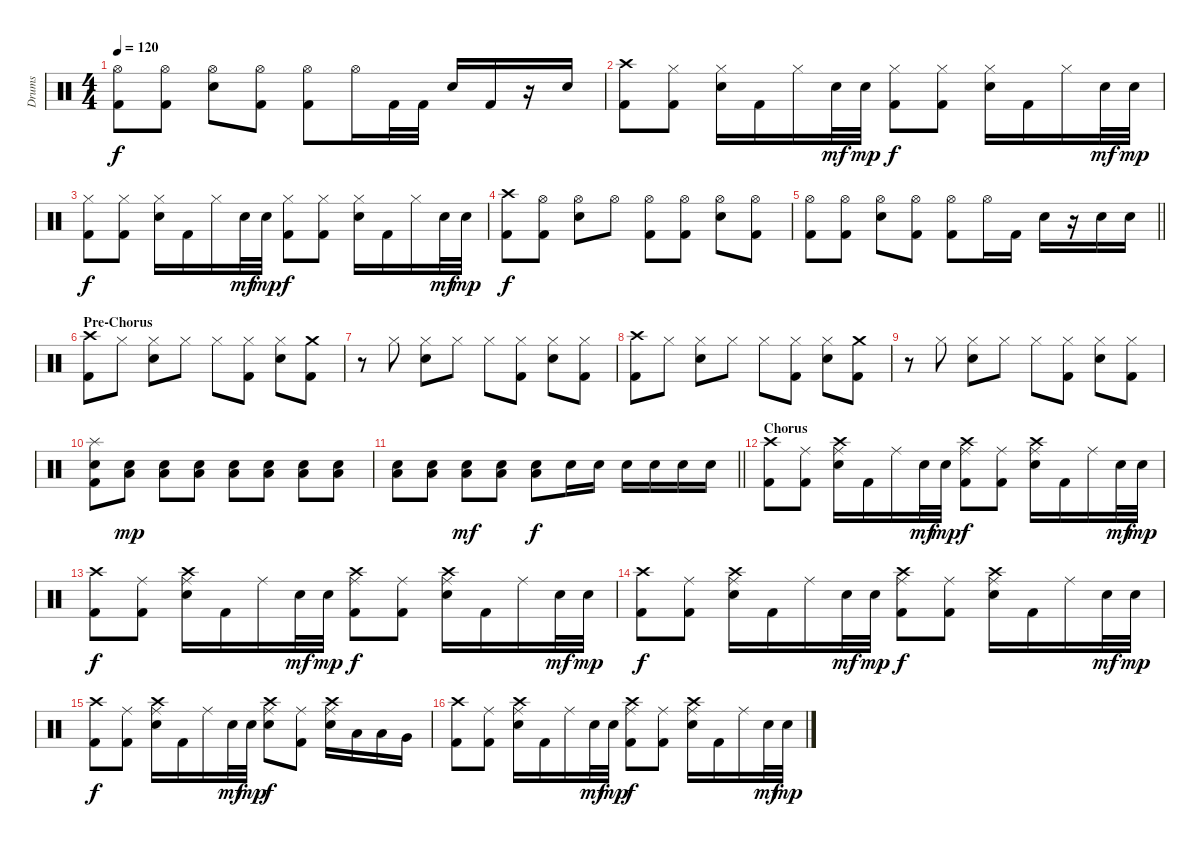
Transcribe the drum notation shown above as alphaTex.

\track ("Drums" "Drums") {instrument percussion}
\staff {score}
\articulation defaults
\ts (4 4)
\tempo 120
\clef neutral
\ks c
("Hi-Hat (open)" "Kick (hit) 2").8{dy f} ("Hi-Hat (open)" "Kick (hit) 2").8 ("Hi-Hat (open)" "Snare (hit) 2").8 ("Hi-Hat (open)" "Kick (hit) 2").8 ("Hi-Hat (open)" "Kick (hit) 2").8 "Hi-Hat (open)".16 "Kick (hit) 2".32 "Kick (hit) 2".32 "Snare (hit) 2".16 "Kick (hit) 2".16 r.16 "Snare (hit) 2".16 |
("Crash high (hit)" "Kick (hit) 2").8 ("Hi-Hat (closed)" "Kick (hit) 2").8 ("Hi-Hat (closed)" "Snare (hit) 2").16 "Kick (hit) 2".16 "Hi-Hat (closed)".16 "Snare (hit) 2".32{dy mf} "Snare (hit) 2".32{dy mp} ("Hi-Hat (closed)" "Kick (hit) 2").8{dy f} ("Hi-Hat (closed)" "Kick (hit) 2").8 ("Hi-Hat (closed)" "Snare (hit) 2").16 "Kick (hit) 2".16 "Hi-Hat (closed)".16 "Snare (hit) 2".32{dy mf} "Snare (hit) 2".32{dy mp} |
("Hi-Hat (closed)" "Kick (hit) 2").8{dy f} ("Hi-Hat (closed)" "Kick (hit) 2").8 ("Hi-Hat (closed)" "Snare (hit) 2").16 "Kick (hit) 2".16 "Hi-Hat (closed)".16 "Snare (hit) 2".32{dy mf} "Snare (hit) 2".32{dy mp} ("Hi-Hat (closed)" "Kick (hit) 2").8{dy f} ("Hi-Hat (closed)" "Kick (hit) 2").8 ("Hi-Hat (closed)" "Snare (hit) 2").16 "Kick (hit) 2".16 "Hi-Hat (closed)".16 "Snare (hit) 2".32{dy mf} "Snare (hit) 2".32{dy mp} |
("Crash high (hit)" "Kick (hit) 2").8{dy f} ("Hi-Hat (open)" "Kick (hit) 2").8 ("Hi-Hat (open)" "Snare (hit) 2").8 "Hi-Hat (open)".8 ("Hi-Hat (open)" "Kick (hit) 2").8 ("Hi-Hat (open)" "Kick (hit) 2").8 ("Hi-Hat (open)" "Snare (hit) 2").8 ("Hi-Hat (open)" "Kick (hit) 2").8 |
\barLineRight lightlight
("Hi-Hat (open)" "Kick (hit) 2").8 ("Hi-Hat (open)" "Kick (hit) 2").8 ("Hi-Hat (open)" "Snare (hit) 2").8 ("Hi-Hat (open)" "Kick (hit) 2").8 ("Hi-Hat (open)" "Kick (hit) 2").8 "Hi-Hat (open)".16 "Kick (hit) 2".16 "Snare (hit) 2".16 r.16 "Snare (hit) 2".16 "Snare (hit) 2".16 |
\section ("" "Pre-Chorus")
("Crash high (hit)" "Kick (hit) 2").8 "Hi-Hat (closed)".8 ("Hi-Hat (closed)" "Snare (hit) 2").8 "Hi-Hat (closed)".8 "Hi-Hat (closed)".8 ("Hi-Hat (closed)" "Kick (hit) 2").8 ("Hi-Hat (closed)" "Snare (hit) 2").8 ("Crash medium (hit)" "Kick (hit) 2").8 |
r.8 "Hi-Hat (closed)".8 ("Hi-Hat (closed)" "Snare (hit) 2").8 "Hi-Hat (closed)".8 "Hi-Hat (closed)".8 ("Hi-Hat (closed)" "Kick (hit) 2").8 ("Hi-Hat (closed)" "Snare (hit) 2").8 ("Hi-Hat (closed)" "Kick (hit) 2").8 |
("Crash high (hit)" "Kick (hit) 2").8 "Hi-Hat (closed)".8 ("Hi-Hat (closed)" "Snare (hit) 2").8 "Hi-Hat (closed)".8 "Hi-Hat (closed)".8 ("Hi-Hat (closed)" "Kick (hit) 2").8 ("Hi-Hat (closed)" "Snare (hit) 2").8 ("Crash medium (hit)" "Kick (hit) 2").8 |
r.8 "Hi-Hat (closed)".8 ("Hi-Hat (closed)" "Snare (hit) 2").8 "Hi-Hat (closed)".8 "Hi-Hat (closed)".8 ("Hi-Hat (closed)" "Kick (hit) 2").8 ("Hi-Hat (closed)" "Snare (hit) 2").8 ("Hi-Hat (closed)" "Kick (hit) 2").8 |
("Splash (hit)" "Snare (hit) 2" "Kick (hit) 2").8 ("Low Tom (hit)" "Snare (hit) 2").8{dy mp} ("Low Tom (hit)" "Snare (hit) 2").8 ("Low Tom (hit)" "Snare (hit) 2").8 ("Low Tom (hit)" "Snare (hit) 2").8 ("Low Tom (hit)" "Snare (hit) 2").8 ("Low Tom (hit)" "Snare (hit) 2").8 ("Low Tom (hit)" "Snare (hit) 2").8 |
\barLineRight lightlight
("Low Tom (hit)" "Snare (hit) 2").8 ("Low Tom (hit)" "Snare (hit) 2").8 ("Low Tom (hit)" "Snare (hit) 2").8{dy mf} ("Low Tom (hit)" "Snare (hit) 2").8 ("Low Tom (hit)" "Snare (hit) 2").8{dy f} "Snare (hit) 2".16 "Snare (hit) 2".16 "Snare (hit) 2".16 "Snare (hit) 2".16 "Snare (hit) 2".16 "Snare (hit) 2".16 |
\section ("" "Chorus")
("Crash high (hit)" "Kick (hit) 2").8 ("Ride (middle)" "Kick (hit) 2").8 ("Ride (middle)" "Crash high (hit)" "Snare (hit) 2").16 "Kick (hit) 2".16 "Ride (middle)".16 "Snare (hit) 2".32{dy mf} "Snare (hit) 2".32{dy mp} ("Ride (middle)" "Crash high (hit)" "Kick (hit) 2").8{dy f} ("Ride (middle)" "Kick (hit) 2").8 ("Ride (middle)" "Crash high (hit)" "Snare (hit) 2").16 "Kick (hit) 2".16 "Ride (middle)".16 "Snare (hit) 2".32{dy mf} "Snare (hit) 2".32{dy mp} |
("Crash high (hit)" "Kick (hit) 2").8{dy f} ("Ride (middle)" "Kick (hit) 2").8 ("Ride (middle)" "Crash high (hit)" "Snare (hit) 2").16 "Kick (hit) 2".16 "Ride (middle)".16 "Snare (hit) 2".32{dy mf} "Snare (hit) 2".32{dy mp} ("Ride (middle)" "Crash high (hit)" "Kick (hit) 2").8{dy f} ("Ride (middle)" "Kick (hit) 2").8 ("Ride (middle)" "Crash high (hit)" "Snare (hit) 2").16 "Kick (hit) 2".16 "Ride (middle)".16 "Snare (hit) 2".32{dy mf} "Snare (hit) 2".32{dy mp} |
("Crash high (hit)" "Kick (hit) 2").8{dy f} ("Ride (middle)" "Kick (hit) 2").8 ("Ride (middle)" "Crash high (hit)" "Snare (hit) 2").16 "Kick (hit) 2".16 "Ride (middle)".16 "Snare (hit) 2".32{dy mf} "Snare (hit) 2".32{dy mp} ("Ride (middle)" "Crash high (hit)" "Kick (hit) 2").8{dy f} ("Ride (middle)" "Kick (hit) 2").8 ("Ride (middle)" "Crash high (hit)" "Snare (hit) 2").16 "Kick (hit) 2".16 "Ride (middle)".16 "Snare (hit) 2".32{dy mf} "Snare (hit) 2".32{dy mp} |
("Crash high (hit)" "Kick (hit) 2").8{dy f} ("Ride (middle)" "Kick (hit) 2").8 ("Ride (middle)" "Crash high (hit)" "Snare (hit) 2").16 "Kick (hit) 2".16 "Ride (middle)".16 "Snare (hit) 2".32{dy mf} "Snare (hit) 2".32{dy mp} ("Ride (middle)" "Crash high (hit)" "Snare (hit) 2").8{dy f} ("Ride (middle)" "Kick (hit) 2").8 ("Ride (middle)" "Crash high (hit)" "Snare (hit) 2").16 "Low Tom (hit)".16 "Low Tom (hit)".16 "Very Low Tom (hit)".16 |
("Crash high (hit)" "Kick (hit) 2").8 ("Ride (middle)" "Kick (hit) 2").8 ("Ride (middle)" "Crash high (hit)" "Snare (hit) 2").16 "Kick (hit) 2".16 "Ride (middle)".16 "Snare (hit) 2".32{dy mf} "Snare (hit) 2".32{dy mp} ("Ride (middle)" "Crash high (hit)" "Kick (hit) 2").8{dy f} ("Ride (middle)" "Kick (hit) 2").8 ("Ride (middle)" "Crash high (hit)" "Snare (hit) 2").16 "Kick (hit) 2".16 "Ride (middle)".16 "Snare (hit) 2".32{dy mf} "Snare (hit) 2".32{dy mp}
